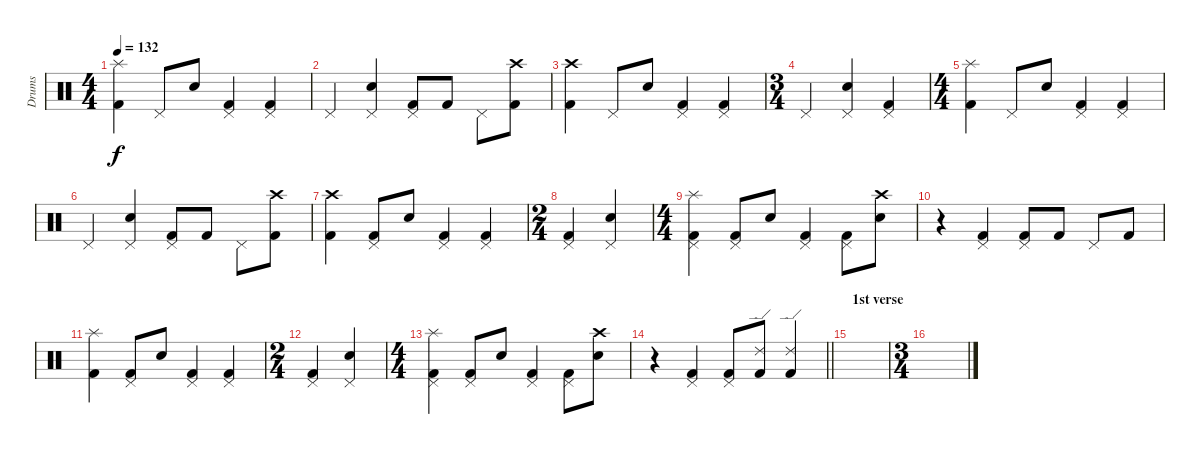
\track ("Drums" "Drums") {instrument percussion}
\staff {score}
\articulation defaults
\ts (4 4)
\tempo 132
\clef neutral
\ks c
("Splash (hit)" "Kick (hit) 2").4{dy f} "Pedal Hi-Hat (hit)".8 "Snare (hit) 2".8 ("Pedal Hi-Hat (hit)" "Kick (hit) 2").4 ("Pedal Hi-Hat (hit)" "Kick (hit) 2").4 |
"Pedal Hi-Hat (hit)".4 ("Pedal Hi-Hat (hit)" "Snare (hit) 2").4 ("Pedal Hi-Hat (hit)" "Kick (hit) 2").8 "Kick (hit) 2".8 "Pedal Hi-Hat (hit)".8 ("Crash high (hit)" "Kick (hit) 2").8 |
("Crash high (hit)" "Kick (hit) 2").4 "Pedal Hi-Hat (hit)".8 "Snare (hit) 2".8 ("Pedal Hi-Hat (hit)" "Kick (hit) 2").4 ("Pedal Hi-Hat (hit)" "Kick (hit) 2").4 |
\ts (3 4)
"Pedal Hi-Hat (hit)".4 ("Pedal Hi-Hat (hit)" "Snare (hit) 2").4 ("Pedal Hi-Hat (hit)" "Kick (hit) 2").4 |
\ts (4 4)
("Splash (hit)" "Kick (hit) 2").4 "Pedal Hi-Hat (hit)".8 "Snare (hit) 2".8 ("Pedal Hi-Hat (hit)" "Kick (hit) 2").4 ("Pedal Hi-Hat (hit)" "Kick (hit) 2").4 |
"Pedal Hi-Hat (hit)".4 ("Pedal Hi-Hat (hit)" "Snare (hit) 2").4 ("Pedal Hi-Hat (hit)" "Kick (hit) 2").8 "Kick (hit) 2".8 "Pedal Hi-Hat (hit)".8 ("Crash high (hit)" "Kick (hit) 2").8 |
("Crash high (hit)" "Kick (hit) 2").4 ("Pedal Hi-Hat (hit)" "Kick (hit) 2").8 "Snare (hit) 2".8 ("Pedal Hi-Hat (hit)" "Kick (hit) 2").4 ("Pedal Hi-Hat (hit)" "Kick (hit) 2").4 |
\ts (2 4)
("Pedal Hi-Hat (hit)" "Kick (hit) 2").4 ("Pedal Hi-Hat (hit)" "Snare (hit) 2").4 |
\ts (4 4)
("Pedal Hi-Hat (hit)" "Splash (hit)" "Kick (hit) 2").4 ("Pedal Hi-Hat (hit)" "Kick (hit) 2").8 "Snare (hit) 2".8 ("Pedal Hi-Hat (hit)" "Kick (hit) 2").4 ("Pedal Hi-Hat (hit)" "Kick (hit) 2").8 ("Crash high (hit)" "Snare (hit) 2").8 |
r.4 ("Pedal Hi-Hat (hit)" "Kick (hit) 2").4 ("Pedal Hi-Hat (hit)" "Kick (hit) 2").8 "Kick (hit) 2".8 "Pedal Hi-Hat (hit)".8 "Kick (hit) 2".8 |
("Splash (hit)" "Kick (hit) 2").4 ("Pedal Hi-Hat (hit)" "Kick (hit) 2").8 "Snare (hit) 2".8 ("Pedal Hi-Hat (hit)" "Kick (hit) 2").4 ("Pedal Hi-Hat (hit)" "Kick (hit) 2").4 |
\ts (2 4)
("Pedal Hi-Hat (hit)" "Kick (hit) 2").4 ("Pedal Hi-Hat (hit)" "Snare (hit) 2").4 |
\ts (4 4)
("Pedal Hi-Hat (hit)" "Splash (hit)" "Kick (hit) 2").4 ("Pedal Hi-Hat (hit)" "Kick (hit) 2").8 "Snare (hit) 2".8 ("Pedal Hi-Hat (hit)" "Kick (hit) 2").4 ("Pedal Hi-Hat (hit)" "Kick (hit) 2").8 ("Crash high (hit)" "Snare (hit) 2").8 |
\barLineRight lightlight
r.4 ("Pedal Hi-Hat (hit)" "Kick (hit) 2").4 ("Pedal Hi-Hat (hit)" "Kick (hit) 2").8 ("Ride (edge) 2" "Kick (hit) 2").8 ("Ride (edge) 2" "Kick (hit) 2").4 |
\section ("" "1st verse")
|
\ts (3 4)
